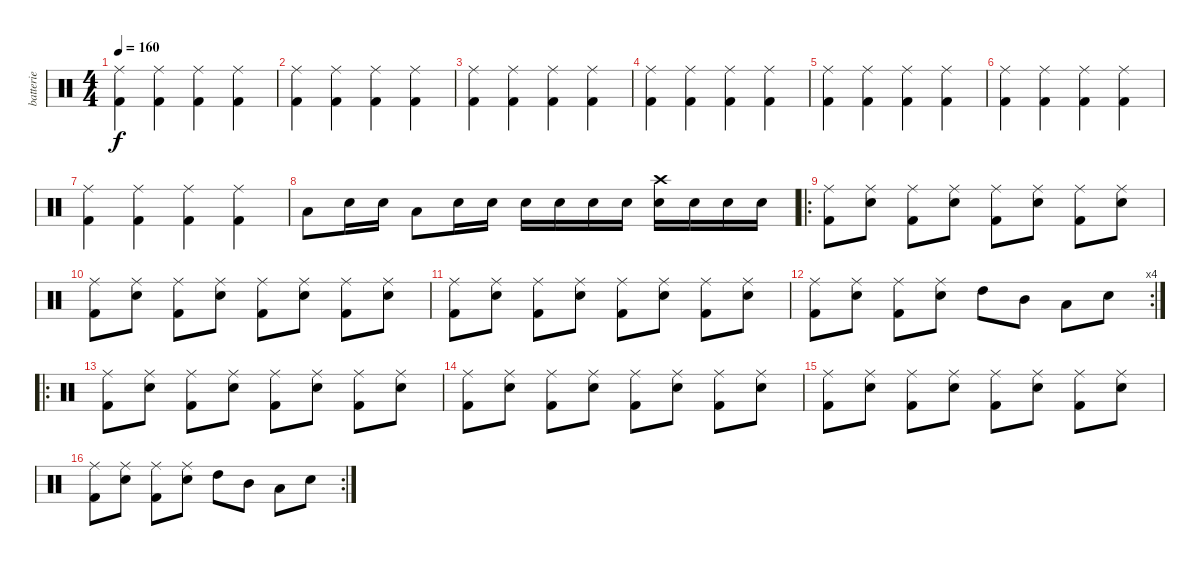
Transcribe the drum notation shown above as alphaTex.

\track ("batterie" "batterie") {instrument percussion}
\staff {score}
\articulation defaults
\ts (4 4)
\tempo 160
\clef neutral
\ks c
("Kick (hit) 2" "Ride (middle)").4{dy f} ("Kick (hit) 2" "Ride (middle)").4 ("Kick (hit) 2" "Ride (middle)").4 ("Kick (hit) 2" "Ride (middle)").4 |
("Kick (hit) 2" "Ride (middle)").4 ("Kick (hit) 2" "Ride (middle)").4 ("Kick (hit) 2" "Ride (middle)").4 ("Kick (hit) 2" "Ride (middle)").4 |
("Kick (hit) 2" "Ride (middle)").4 ("Kick (hit) 2" "Ride (middle)").4 ("Kick (hit) 2" "Ride (middle)").4 ("Kick (hit) 2" "Ride (middle)").4 |
("Kick (hit) 2" "Ride (middle)").4 ("Kick (hit) 2" "Ride (middle)").4 ("Kick (hit) 2" "Ride (middle)").4 ("Kick (hit) 2" "Ride (middle)").4 |
("Kick (hit) 2" "Ride (middle)").4 ("Kick (hit) 2" "Ride (middle)").4 ("Kick (hit) 2" "Ride (middle)").4 ("Kick (hit) 2" "Ride (middle)").4 |
("Kick (hit) 2" "Ride (middle)").4 ("Kick (hit) 2" "Ride (middle)").4 ("Kick (hit) 2" "Ride (middle)").4 ("Kick (hit) 2" "Ride (middle)").4 |
("Kick (hit) 2" "Ride (middle)").4 ("Kick (hit) 2" "Ride (middle)").4 ("Kick (hit) 2" "Ride (middle)").4 ("Kick (hit) 2" "Ride (middle)").4 |
"Low Tom (hit)".8 "Snare (hit) 2".16 "Snare (hit) 2".16 "Low Tom (hit)".8 "Snare (hit) 2".16 "Snare (hit) 2".16 "Snare (hit) 2".16 "Snare (hit) 2".16 "Snare (hit) 2".16 "Snare (hit) 2".16 ("Snare (hit) 2" "Crash high (hit)").16 "Snare (hit) 2".16 "Snare (hit) 2".16 "Snare (hit) 2".16 |
\ro
("Kick (hit) 2" "Ride (middle)").8 ("Snare (hit) 2" "Ride (middle)").8 ("Kick (hit) 2" "Ride (middle)").8 ("Snare (hit) 2" "Ride (middle)").8 ("Kick (hit) 2" "Ride (middle)").8 ("Snare (hit) 2" "Ride (middle)").8 ("Kick (hit) 2" "Ride (middle)").8 ("Snare (hit) 2" "Ride (middle)").8 |
("Kick (hit) 2" "Ride (middle)").8 ("Snare (hit) 2" "Ride (middle)").8 ("Kick (hit) 2" "Ride (middle)").8 ("Snare (hit) 2" "Ride (middle)").8 ("Kick (hit) 2" "Ride (middle)").8 ("Snare (hit) 2" "Ride (middle)").8 ("Kick (hit) 2" "Ride (middle)").8 ("Snare (hit) 2" "Ride (middle)").8 |
("Kick (hit) 2" "Ride (middle)").8 ("Snare (hit) 2" "Ride (middle)").8 ("Kick (hit) 2" "Ride (middle)").8 ("Snare (hit) 2" "Ride (middle)").8 ("Kick (hit) 2" "Ride (middle)").8 ("Snare (hit) 2" "Ride (middle)").8 ("Kick (hit) 2" "Ride (middle)").8 ("Snare (hit) 2" "Ride (middle)").8 |
\rc 4
("Kick (hit) 2" "Ride (middle)").8 ("Snare (hit) 2" "Ride (middle)").8 ("Kick (hit) 2" "Ride (middle)").8 ("Snare (hit) 2" "Ride (middle)").8 "High Tom (hit)".8 "Mid Tom (hit)".8 "Low Tom (hit)".8 "Snare (hit) 2".8 |
\ro
("Kick (hit) 2" "Ride (middle)").8 ("Snare (hit) 2" "Ride (middle)").8 ("Kick (hit) 2" "Ride (middle)").8 ("Snare (hit) 2" "Ride (middle)").8 ("Kick (hit) 2" "Ride (middle)").8 ("Snare (hit) 2" "Ride (middle)").8 ("Kick (hit) 2" "Ride (middle)").8 ("Snare (hit) 2" "Ride (middle)").8 |
("Kick (hit) 2" "Ride (middle)").8 ("Snare (hit) 2" "Ride (middle)").8 ("Kick (hit) 2" "Ride (middle)").8 ("Snare (hit) 2" "Ride (middle)").8 ("Kick (hit) 2" "Ride (middle)").8 ("Snare (hit) 2" "Ride (middle)").8 ("Kick (hit) 2" "Ride (middle)").8 ("Snare (hit) 2" "Ride (middle)").8 |
("Kick (hit) 2" "Ride (middle)").8 ("Snare (hit) 2" "Ride (middle)").8 ("Kick (hit) 2" "Ride (middle)").8 ("Snare (hit) 2" "Ride (middle)").8 ("Kick (hit) 2" "Ride (middle)").8 ("Snare (hit) 2" "Ride (middle)").8 ("Kick (hit) 2" "Ride (middle)").8 ("Snare (hit) 2" "Ride (middle)").8 |
\rc 2
("Kick (hit) 2" "Ride (middle)").8 ("Snare (hit) 2" "Ride (middle)").8 ("Kick (hit) 2" "Ride (middle)").8 ("Snare (hit) 2" "Ride (middle)").8 "High Tom (hit)".8 "Mid Tom (hit)".8 "Low Tom (hit)".8 "Snare (hit) 2".8
